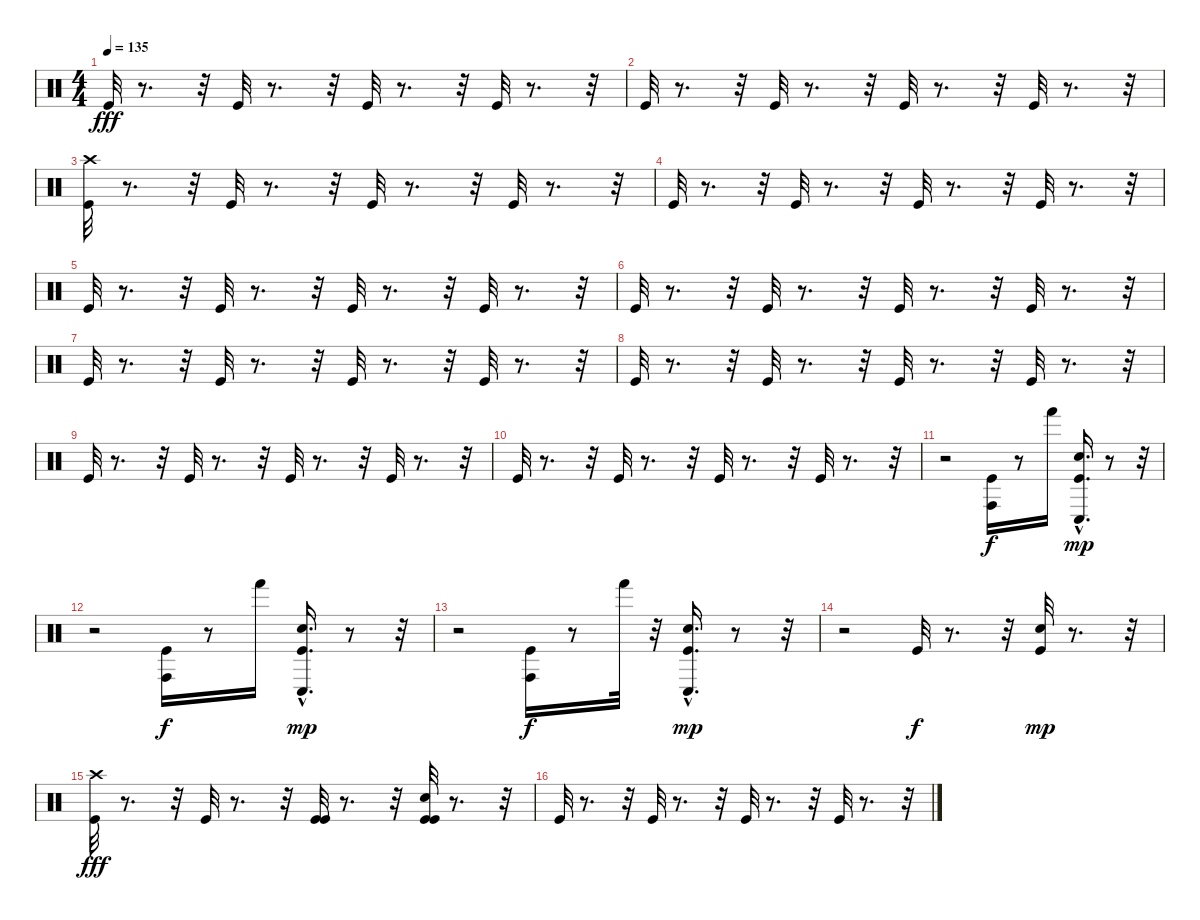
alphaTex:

\track "" {instrument percussion}
\staff {score}
\articulation defaults
\ts (4 4)
\tempo 135
\clef neutral
\ks c "Kick (hit)".32{dy fff}
r.8{d} r.32 "Kick (hit)".32 r.8{d} r.32 "Kick (hit)".32 r.8{d} r.32 "Kick (hit)".32 r.8{d} r.32 |
"Kick (hit)".32 r.8{d} r.32 "Kick (hit)".32 r.8{d} r.32 "Kick (hit)".32 r.8{d} r.32 "Kick (hit)".32 r.8{d} r.32 |
("Kick (hit)" "Crash high (hit)").32 r.8{d} r.32 "Kick (hit)".32 r.8{d} r.32 "Kick (hit)".32 r.8{d} r.32 "Kick (hit)".32 r.8{d} r.32 |
"Kick (hit)".32 r.8{d} r.32 "Kick (hit)".32 r.8{d} r.32 "Kick (hit)".32 r.8{d} r.32 "Kick (hit)".32 r.8{d} r.32 |
"Kick (hit)".32 r.8{d} r.32 "Kick (hit)".32 r.8{d} r.32 "Kick (hit)".32 r.8{d} r.32 "Kick (hit)".32 r.8{d} r.32 |
"Kick (hit)".32 r.8{d} r.32 "Kick (hit)".32 r.8{d} r.32 "Kick (hit)".32 r.8{d} r.32 "Kick (hit)".32 r.8{d} r.32 |
"Kick (hit)".32 r.8{d} r.32 "Kick (hit)".32 r.8{d} r.32 "Kick (hit)".32 r.8{d} r.32 "Kick (hit)".32 r.8{d} r.32 |
"Kick (hit)".32 r.8{d} r.32 "Kick (hit)".32 r.8{d} r.32 "Kick (hit)".32 r.8{d} r.32 "Kick (hit)".32 r.8{d} r.32 |
"Kick (hit)".32 r.8{d} r.32 "Kick (hit)".32 r.8{d} r.32 "Kick (hit)".32 r.8{d} r.32 "Kick (hit)".32 r.8{d} r.32 |
"Kick (hit)".32 r.8{d} r.32 "Kick (hit)".32 r.8{d} r.32 "Kick (hit)".32 r.8{d} r.32 "Kick (hit)".32 r.8{d} r.32 |
r.2 ("Kick (hit)" "Conga high (hit)").16{dy f} r.8 "Hand (hit)".16 ("Snare (hit) 2" "Kick (hit)" "Conga low (hit)"{hac}).16{d dy mp} r.8 r.32 |
r.2 ("Kick (hit)" "Conga high (hit)").16{dy f} r.8 "Hand (hit)".16 ("Snare (hit) 2" "Kick (hit)" "Conga low (hit)"{hac}).16{d dy mp} r.8 r.32 |
r.2 ("Kick (hit)" "Conga high (hit)").16{dy f} r.8 "Hand (hit)".32 r.32 ("Snare (hit) 2" "Kick (hit)" "Conga low (hit)"{hac}).16{d dy mp} r.8 r.32 |
r.2 "Kick (hit)".32{dy f} r.8{d} r.32 ("Snare (hit) 2" "Kick (hit)").32{dy mp} r.8{d} r.32 |
("Kick (hit)" "Crash high (hit)").32{dy fff} r.8{d} r.32 "Kick (hit)".32 r.8{d} r.32 ("Kick (hit)" "Kick (hit)").32 r.8{d} r.32 ("Snare (hit) 2" "Kick (hit)" "Kick (hit)").32 r.8{d} r.32 |
"Kick (hit)".32 r.8{d} r.32 "Kick (hit)".32 r.8{d} r.32 "Kick (hit)".32 r.8{d} r.32 "Kick (hit)".32 r.8{d} r.32
